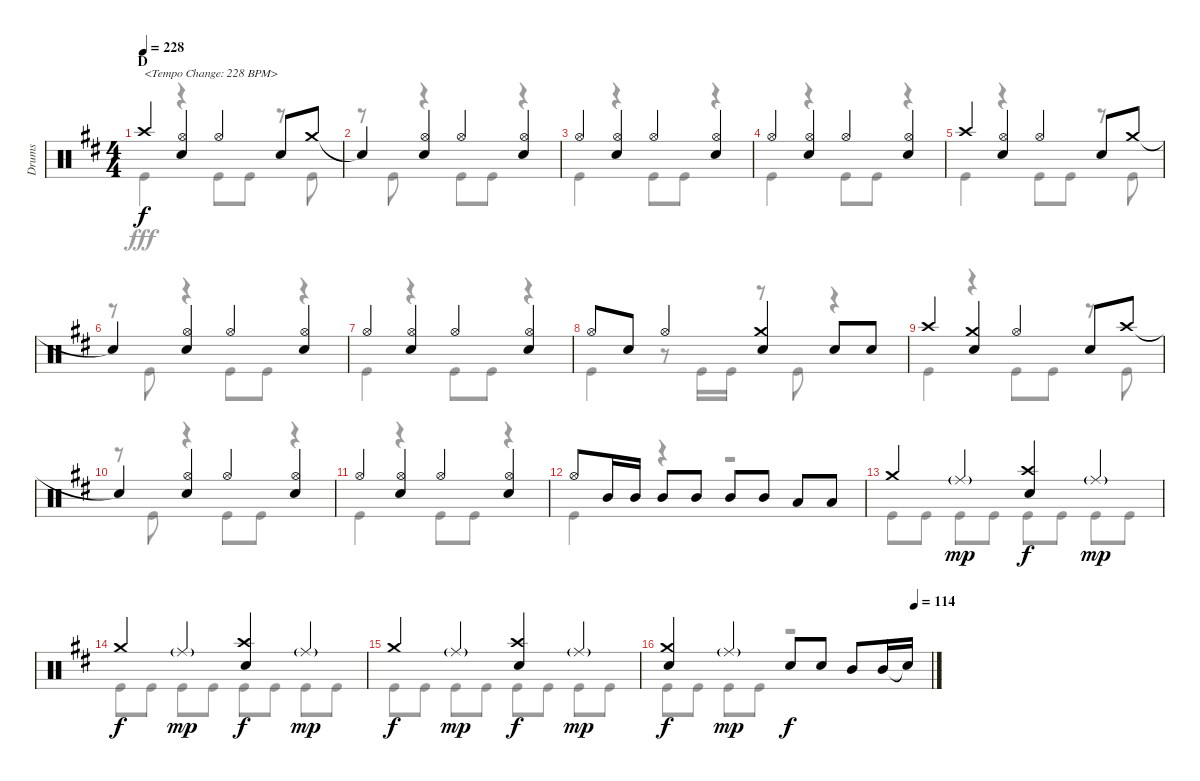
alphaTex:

\track ("Drums" "Drums") {instrument percussion}
\staff {score}
\articulation defaults
\voice
\ts (4 4)
\section ("" "D")
\tempo 228
\clef neutral
\ks d "Crash high (hit)".4{txt "<Tempo Change: 228 BPM>" dy f}
("Hi-Hat (open)" "Snare (hit) 2").4 "Hi-Hat (open)".4 "Snare (hit) 2".8 "Crash medium (hit)".8 |
"Snare (hit)"{t}.4 ("Hi-Hat (open)" "Snare (hit) 2").4 "Hi-Hat (open)".4 ("Hi-Hat (open)" "Snare (hit) 2").4 |
"Hi-Hat (open)".4 ("Hi-Hat (open)" "Snare (hit) 2").4 "Hi-Hat (open)".4 ("Hi-Hat (open)" "Snare (hit) 2").4 |
"Hi-Hat (open)".4 ("Hi-Hat (open)" "Snare (hit) 2").4 "Hi-Hat (open)".4 ("Hi-Hat (open)" "Snare (hit) 2").4 |
"Crash high (hit)".4 ("Hi-Hat (open)" "Snare (hit) 2").4 "Hi-Hat (open)".4 "Snare (hit) 2".8 "Crash medium (hit)".8 |
"Snare (hit)"{t}.4 ("Hi-Hat (open)" "Snare (hit) 2").4 "Hi-Hat (open)".4 ("Hi-Hat (open)" "Snare (hit) 2").4 |
"Hi-Hat (open)".4 ("Hi-Hat (open)" "Snare (hit) 2").4 "Hi-Hat (open)".4 ("Hi-Hat (open)" "Snare (hit) 2").4 |
"Hi-Hat (open)".8 "Snare (hit) 2".8 "Hi-Hat (open)".4 ("Crash medium (hit)" "Snare (hit) 2").4 "Snare (hit) 2".8 "Snare (hit) 2".8 |
"Crash high (hit)".4 ("Crash medium (hit)" "Snare (hit) 2").4 "Hi-Hat (open)".4 "Snare (hit) 2".8 "Crash high (hit)".8 |
"Snare (hit)"{t}.4 ("Hi-Hat (open)" "Snare (hit) 2").4 "Hi-Hat (open)".4 ("Hi-Hat (open)" "Snare (hit) 2").4 |
"Hi-Hat (open)".4 ("Hi-Hat (open)" "Snare (hit) 2").4 "Hi-Hat (open)".4 ("Hi-Hat (open)" "Snare (hit) 2").4 |
"Hi-Hat (open)".8 "Mid Tom (hit)".16 "Mid Tom (hit)".16 "Mid Tom (hit)".8 "Mid Tom (hit)".8 "Mid Tom (hit)".8 "Mid Tom (hit)".8 "Low Tom (hit)".8 "Low Tom (hit)".8 |
"Crash medium (hit)".4 "Ride (middle)"{g}.4{dy mp} ("Crash high (hit)" "Snare (hit) 2").4{dy f} "Ride (middle)"{g}.4{dy mp} |
"Crash medium (hit)".4{dy f} "Ride (middle)"{g}.4{dy mp} ("Crash high (hit)" "Snare (hit) 2").4{dy f} "Ride (middle)"{g}.4{dy mp} |
"Crash medium (hit)".4{dy f} "Ride (middle)"{g}.4{dy mp} ("Crash high (hit)" "Snare (hit) 2").4{dy f} "Ride (middle)"{g}.4{dy mp} |
\tempo (114 0.9375)
("Crash medium (hit)" "Snare (hit) 2").4{dy f} "Ride (middle)"{g}.4{dy mp} "Snare (hit) 2".8{dy f} "Snare (hit) 2".8 "Mid Tom (hit)".8 "Mid Tom (hit)".16 "Snare (hit)"{t}.16
\voice
\clef neutral
\ottava regular
\simile none
\ks d "Kick (hit)".4{dy fff}
r.4 "Kick (hit)".8 "Kick (hit)".8 r.8 "Kick (hit)".8 |
r.8 "Kick (hit)".8 r.4 "Kick (hit)".8 "Kick (hit)".8 r.4 |
"Kick (hit)".4 r.4 "Kick (hit)".8 "Kick (hit)".8 r.4 |
"Kick (hit)".4 r.4 "Kick (hit)".8 "Kick (hit)".8 r.4 |
"Kick (hit)".4 r.4 "Kick (hit)".8 "Kick (hit)".8 r.8 "Kick (hit)".8 |
r.8 "Kick (hit)".8 r.4 "Kick (hit)".8 "Kick (hit)".8 r.4 |
"Kick (hit)".4 r.4 "Kick (hit)".8 "Kick (hit)".8 r.4 |
"Kick (hit)".4 r.8 "Kick (hit)".16 "Kick (hit)".16 r.8 "Kick (hit)".8 r.4 |
"Kick (hit)".4 r.4 "Kick (hit)".8 "Kick (hit)".8 r.8 "Kick (hit)".8 |
r.8 "Kick (hit)".8 r.4 "Kick (hit)".8 "Kick (hit)".8 r.4 |
"Kick (hit)".4 r.4 "Kick (hit)".8 "Kick (hit)".8 r.4 |
"Kick (hit)".4 r.4 r.2 |
"Kick (hit)".8 "Kick (hit)".8 "Kick (hit)".8 "Kick (hit)".8 "Kick (hit)".8 "Kick (hit)".8 "Kick (hit)".8 "Kick (hit)".8 |
"Kick (hit)".8 "Kick (hit)".8 "Kick (hit)".8 "Kick (hit)".8 "Kick (hit)".8 "Kick (hit)".8 "Kick (hit)".8 "Kick (hit)".8 |
"Kick (hit)".8 "Kick (hit)".8 "Kick (hit)".8 "Kick (hit)".8 "Kick (hit)".8 "Kick (hit)".8 "Kick (hit)".8 "Kick (hit)".8 |
"Kick (hit)".8 "Kick (hit)".8 "Kick (hit)".8 "Kick (hit)".8 r.2
